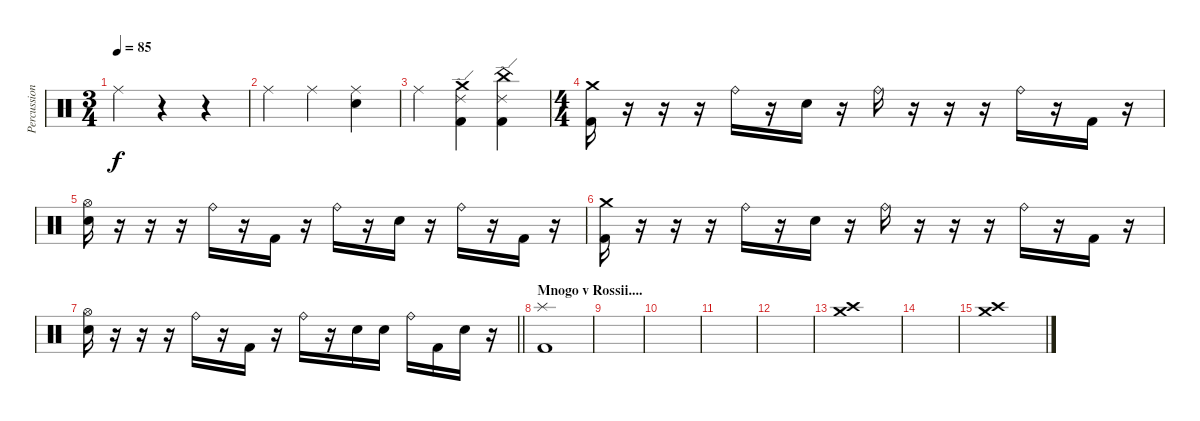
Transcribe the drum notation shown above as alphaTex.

\track ("Percussion" "Percussion") {instrument percussion}
\staff {score}
\articulation defaults
\ts (3 4)
\tempo 85
\clef neutral
\ks c "Ride (middle)".4{dy f}
r.4 r.4 |
"Ride (middle)".4 "Ride (middle)".4 ("Ride (middle)" "Electric Snare (hit)").4 |
"Ride (middle)".4 ("Crash medium (hit)" "Ride (edge) 2" "Kick (hit) 2").4 ("China (hit)" "Ride (edge) 2" "Kick (hit) 2").4 |
\ts (4 4)
("Crash medium (hit)" "Kick (hit) 2").16 r.16 r.16 r.16 "Ride (bell)".16 r.16 "Electric Snare (hit)".16 r.16 "Ride (bell)".16 r.16 r.16 r.16 "Ride (bell)".16 r.16 "Kick (hit) 2".16 r.16 |
("Hi-Hat (open)" "Electric Snare (hit)").16 r.16 r.16 r.16 "Ride (bell)".16 r.16 "Kick (hit) 2".16 r.16 "Ride (bell)".16 r.16 "Electric Snare (hit)".16 r.16 "Ride (bell)".16 r.16 "Kick (hit) 2".16 r.16 |
("Crash medium (hit)" "Kick (hit) 2").16 r.16 r.16 r.16 "Ride (bell)".16 r.16 "Electric Snare (hit)".16 r.16 "Ride (bell)".16 r.16 r.16 r.16 "Ride (bell)".16 r.16 "Kick (hit) 2".16 r.16 |
\barLineRight lightlight
("Hi-Hat (open)" "Electric Snare (hit)").16 r.16 r.16 r.16 "Ride (bell)".16 r.16 "Kick (hit) 2".16 r.16 "Ride (bell)".16 r.16 "Electric Snare (hit)".16 "Electric Snare (hit)".16 "Ride (bell)".16 "Kick (hit) 2".16 "Electric Snare (hit)".16 r.16 |
\section ("" "Mnogo v Rossii....")
("Splash (hit)" "Kick (hit) 2").1 |
|
|
|
|
("Crash medium (hit)" "Crash high (hit)").1 |
|
("Crash medium (hit)" "Crash high (hit)").1
